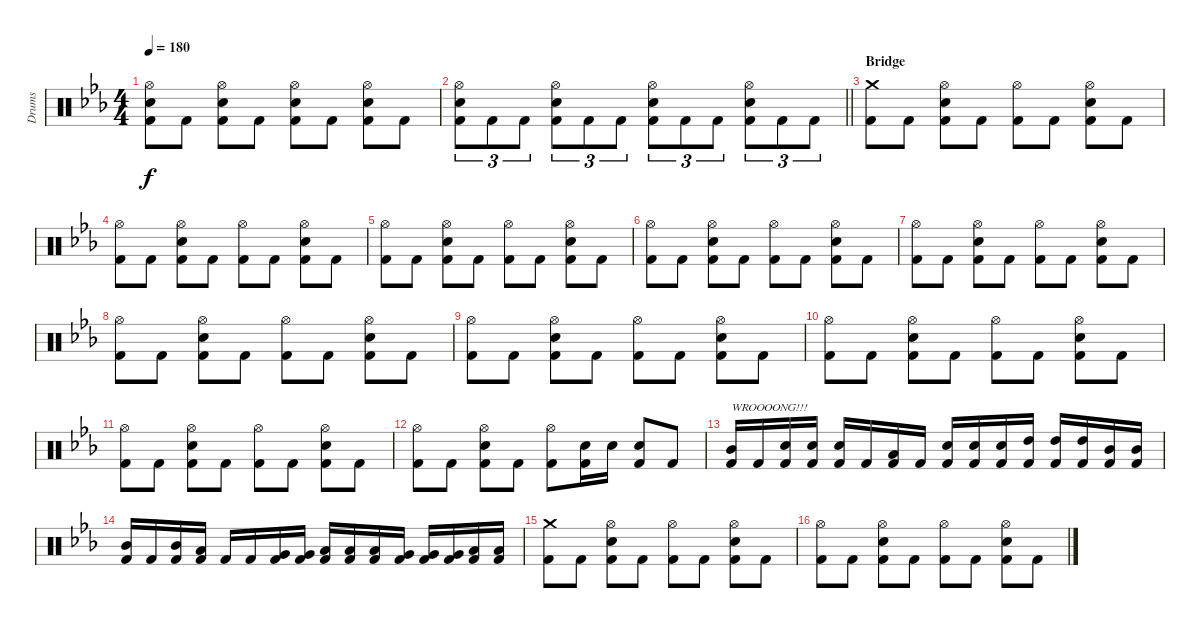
\track ("Drums" "Drums") {instrument percussion}
\staff {score}
\articulation defaults
\ts (4 4)
\tempo 180
\clef neutral
\ks eb
("Hi-Hat (open)" "Snare (hit) 2" "Kick (hit) 2").8{dy f} "Kick (hit) 2".8 ("Hi-Hat (open)" "Snare (hit) 2" "Kick (hit) 2").8 "Kick (hit) 2".8 ("Hi-Hat (open)" "Snare (hit) 2" "Kick (hit) 2").8 "Kick (hit) 2".8 ("Hi-Hat (open)" "Snare (hit) 2" "Kick (hit) 2").8 "Kick (hit) 2".8 |
\barLineRight lightlight
("Hi-Hat (open)" "Snare (hit) 2" "Kick (hit) 2").8{tu (3 2)} "Kick (hit) 2".8{tu (3 2)} "Kick (hit) 2".8{tu (3 2)} ("Hi-Hat (open)" "Snare (hit) 2" "Kick (hit) 2").8{tu (3 2)} "Kick (hit) 2".8{tu (3 2)} "Kick (hit) 2".8{tu (3 2)} ("Hi-Hat (open)" "Snare (hit) 2" "Kick (hit) 2").8{tu (3 2)} "Kick (hit) 2".8{tu (3 2)} "Kick (hit) 2".8{tu (3 2)} ("Hi-Hat (open)" "Snare (hit) 2" "Kick (hit) 2").8{tu (3 2)} "Kick (hit) 2".8{tu (3 2)} "Kick (hit) 2".8{tu (3 2)} |
\section ("" "Bridge")
("Crash medium (hit)" "Kick (hit) 2").8 "Kick (hit) 2".8 ("Hi-Hat (open)" "Snare (hit) 2" "Kick (hit) 2").8 "Kick (hit) 2".8 ("Hi-Hat (open)" "Kick (hit) 2").8 "Kick (hit) 2".8 ("Hi-Hat (open)" "Snare (hit) 2" "Kick (hit) 2").8 "Kick (hit) 2".8 |
("Hi-Hat (open)" "Kick (hit) 2").8 "Kick (hit) 2".8 ("Hi-Hat (open)" "Snare (hit) 2" "Kick (hit) 2").8 "Kick (hit) 2".8 ("Hi-Hat (open)" "Kick (hit) 2").8 "Kick (hit) 2".8 ("Hi-Hat (open)" "Snare (hit) 2" "Kick (hit) 2").8 "Kick (hit) 2".8 |
("Hi-Hat (open)" "Kick (hit) 2").8 "Kick (hit) 2".8 ("Hi-Hat (open)" "Snare (hit) 2" "Kick (hit) 2").8 "Kick (hit) 2".8 ("Hi-Hat (open)" "Kick (hit) 2").8 "Kick (hit) 2".8 ("Hi-Hat (open)" "Snare (hit) 2" "Kick (hit) 2").8 "Kick (hit) 2".8 |
("Hi-Hat (open)" "Kick (hit) 2").8 "Kick (hit) 2".8 ("Hi-Hat (open)" "Snare (hit) 2" "Kick (hit) 2").8 "Kick (hit) 2".8 ("Hi-Hat (open)" "Kick (hit) 2").8 "Kick (hit) 2".8 ("Hi-Hat (open)" "Snare (hit) 2" "Kick (hit) 2").8 "Kick (hit) 2".8 |
("Hi-Hat (open)" "Kick (hit) 2").8 "Kick (hit) 2".8 ("Hi-Hat (open)" "Snare (hit) 2" "Kick (hit) 2").8 "Kick (hit) 2".8 ("Hi-Hat (open)" "Kick (hit) 2").8 "Kick (hit) 2".8 ("Hi-Hat (open)" "Snare (hit) 2" "Kick (hit) 2").8 "Kick (hit) 2".8 |
("Hi-Hat (open)" "Kick (hit) 2").8 "Kick (hit) 2".8 ("Hi-Hat (open)" "Snare (hit) 2" "Kick (hit) 2").8 "Kick (hit) 2".8 ("Hi-Hat (open)" "Kick (hit) 2").8 "Kick (hit) 2".8 ("Hi-Hat (open)" "Snare (hit) 2" "Kick (hit) 2").8 "Kick (hit) 2".8 |
("Hi-Hat (open)" "Kick (hit) 2").8 "Kick (hit) 2".8 ("Hi-Hat (open)" "Snare (hit) 2" "Kick (hit) 2").8 "Kick (hit) 2".8 ("Hi-Hat (open)" "Kick (hit) 2").8 "Kick (hit) 2".8 ("Hi-Hat (open)" "Snare (hit) 2" "Kick (hit) 2").8 "Kick (hit) 2".8 |
("Hi-Hat (open)" "Kick (hit) 2").8 "Kick (hit) 2".8 ("Hi-Hat (open)" "Snare (hit) 2" "Kick (hit) 2").8 "Kick (hit) 2".8 ("Hi-Hat (open)" "Kick (hit) 2").8 "Kick (hit) 2".8 ("Hi-Hat (open)" "Snare (hit) 2" "Kick (hit) 2").8 "Kick (hit) 2".8 |
("Hi-Hat (open)" "Kick (hit) 2").8 "Kick (hit) 2".8 ("Hi-Hat (open)" "Snare (hit) 2" "Kick (hit) 2").8 "Kick (hit) 2".8 ("Hi-Hat (open)" "Kick (hit) 2").8 "Kick (hit) 2".8 ("Hi-Hat (open)" "Snare (hit) 2" "Kick (hit) 2").8 "Kick (hit) 2".8 |
("Hi-Hat (open)" "Kick (hit) 2").8 "Kick (hit) 2".8 ("Hi-Hat (open)" "Snare (hit) 2" "Kick (hit) 2").8 "Kick (hit) 2".8 ("Hi-Hat (open)" "Kick (hit) 2").8 ("Snare (hit) 2" "Kick (hit) 2").16 "Snare (hit) 2".16 ("Snare (hit) 2" "Kick (hit) 2").8 "Kick (hit) 2".8 |
("Mid Tom (hit)" "Kick (hit) 2").16{txt "WROOOONG!!!"} "Kick (hit) 2".16 ("Snare (hit) 2" "Kick (hit) 2").16 ("Snare (hit) 2" "Kick (hit) 2").16 ("Snare (hit) 2" "Kick (hit) 2").16 "Kick (hit) 2".16 ("Low Tom (hit)" "Kick (hit) 2").16 "Kick (hit) 2".16 ("Snare (hit) 2" "Kick (hit) 2").16 ("Snare (hit) 2" "Kick (hit) 2").16 ("Snare (hit) 2" "Kick (hit) 2").16 ("High Tom (hit)" "Kick (hit) 2").16 ("High Tom (hit)" "Kick (hit) 2").16 ("High Tom (hit)" "Kick (hit) 2").16 ("Mid Tom (hit)" "Kick (hit) 2").16 ("Mid Tom (hit)" "Kick (hit) 2").16 |
("Mid Tom (hit)" "Kick (hit) 2").16 "Kick (hit) 2".16 ("Mid Tom (hit)" "Kick (hit) 2").16 ("Low Tom (hit)" "Kick (hit) 2").16 "Kick (hit) 2".16 "Kick (hit) 2".16 ("Very Low Tom (hit)" "Kick (hit) 2").16 ("Very Low Tom (hit)" "Kick (hit) 2").16 ("Low Tom (hit)" "Kick (hit) 2").16 ("Low Tom (hit)" "Kick (hit) 2").16 ("Low Tom (hit)" "Kick (hit) 2").16 ("Very Low Tom (hit)" "Kick (hit) 2").16 ("Very Low Tom (hit)" "Kick (hit) 2").16 ("Very Low Tom (hit)" "Kick (hit) 2").16 ("Low Floor Tom (hit)" "Kick (hit) 2").16 ("Low Floor Tom (hit)" "Kick (hit) 2").16 |
("Crash medium (hit)" "Kick (hit) 2").8 "Kick (hit) 2".8 ("Hi-Hat (open)" "Snare (hit) 2" "Kick (hit) 2").8 "Kick (hit) 2".8 ("Hi-Hat (open)" "Kick (hit) 2").8 "Kick (hit) 2".8 ("Hi-Hat (open)" "Snare (hit) 2" "Kick (hit) 2").8 "Kick (hit) 2".8 |
("Hi-Hat (open)" "Kick (hit) 2").8 "Kick (hit) 2".8 ("Hi-Hat (open)" "Snare (hit) 2" "Kick (hit) 2").8 "Kick (hit) 2".8 ("Hi-Hat (open)" "Kick (hit) 2").8 "Kick (hit) 2".8 ("Hi-Hat (open)" "Snare (hit) 2" "Kick (hit) 2").8 "Kick (hit) 2".8
